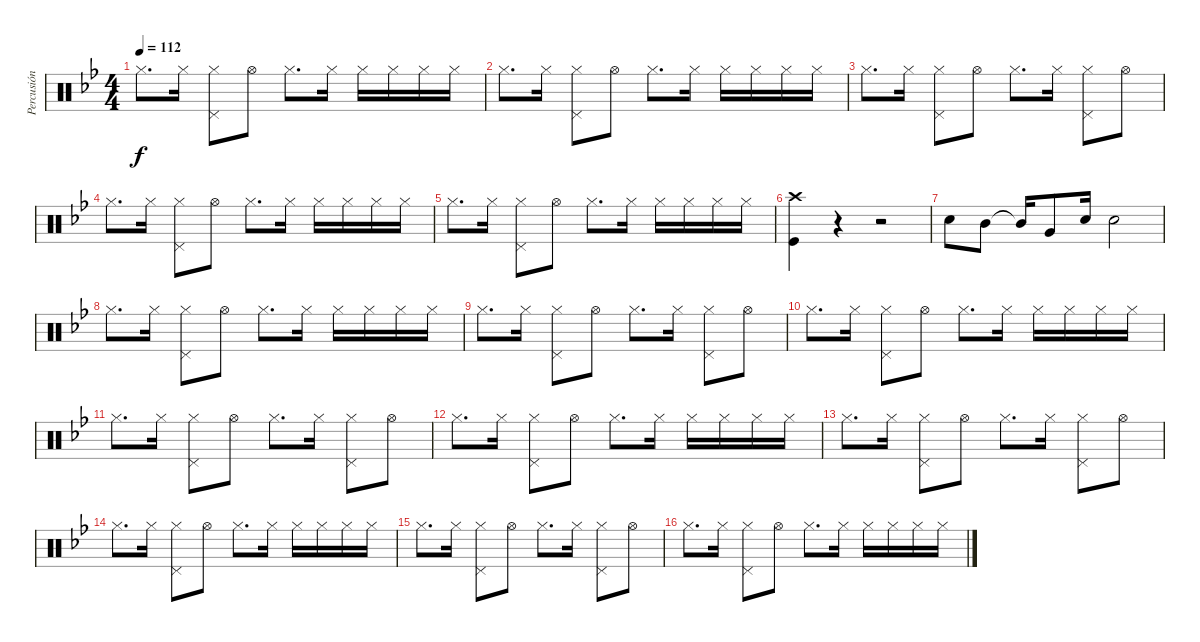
\track ("Percusión" "Percusión") {instrument percussion}
\staff {score}
\articulation defaults
\ts (4 4)
\tempo 112
\clef neutral
\ks bb "Hi-Hat (closed)".8{d dy f} "Hi-Hat (closed)".16
("Hi-Hat (closed)" "Pedal Hi-Hat (hit)").8 "Hi-Hat (open)".8 "Hi-Hat (closed)".8{d} "Hi-Hat (closed)".16 "Hi-Hat (closed)".16 "Hi-Hat (closed)".16 "Hi-Hat (closed)".16 "Hi-Hat (closed)".16 |
"Hi-Hat (closed)".8{d} "Hi-Hat (closed)".16 ("Hi-Hat (closed)" "Pedal Hi-Hat (hit)").8 "Hi-Hat (open)".8 "Hi-Hat (closed)".8{d} "Hi-Hat (closed)".16 "Hi-Hat (closed)".16 "Hi-Hat (closed)".16 "Hi-Hat (closed)".16 "Hi-Hat (closed)".16 |
"Hi-Hat (closed)".8{d} "Hi-Hat (closed)".16 ("Hi-Hat (closed)" "Pedal Hi-Hat (hit)").8 "Hi-Hat (open)".8 "Hi-Hat (closed)".8{d} "Hi-Hat (closed)".16 ("Hi-Hat (closed)" "Pedal Hi-Hat (hit)").8 "Hi-Hat (open)".8 |
"Hi-Hat (closed)".8{d} "Hi-Hat (closed)".16 ("Hi-Hat (closed)" "Pedal Hi-Hat (hit)").8 "Hi-Hat (open)".8 "Hi-Hat (closed)".8{d} "Hi-Hat (closed)".16 "Hi-Hat (closed)".16 "Hi-Hat (closed)".16 "Hi-Hat (closed)".16 "Hi-Hat (closed)".16 |
"Hi-Hat (closed)".8{d} "Hi-Hat (closed)".16 ("Hi-Hat (closed)" "Pedal Hi-Hat (hit)").8 "Hi-Hat (open)".8 "Hi-Hat (closed)".8{d} "Hi-Hat (closed)".16 "Hi-Hat (closed)".16 "Hi-Hat (closed)".16 "Hi-Hat (closed)".16 "Hi-Hat (closed)".16 |
("Crash high (hit)" "Kick (hit)").4 r.4 r.2 |
"Snare (hit) 2".8 "Mid Tom (hit)".8 "Mid Tom (hit)"{t}.16 "Very Low Tom (hit)".8 "Snare (hit) 2".16 "Snare (hit) 2".2 |
"Hi-Hat (closed)".8{d} "Hi-Hat (closed)".16 ("Hi-Hat (closed)" "Pedal Hi-Hat (hit)").8 "Hi-Hat (open)".8 "Hi-Hat (closed)".8{d} "Hi-Hat (closed)".16 "Hi-Hat (closed)".16 "Hi-Hat (closed)".16 "Hi-Hat (closed)".16 "Hi-Hat (closed)".16 |
"Hi-Hat (closed)".8{d} "Hi-Hat (closed)".16 ("Hi-Hat (closed)" "Pedal Hi-Hat (hit)").8 "Hi-Hat (open)".8 "Hi-Hat (closed)".8{d} "Hi-Hat (closed)".16 ("Hi-Hat (closed)" "Pedal Hi-Hat (hit)").8 "Hi-Hat (open)".8 |
"Hi-Hat (closed)".8{d} "Hi-Hat (closed)".16 ("Hi-Hat (closed)" "Pedal Hi-Hat (hit)").8 "Hi-Hat (open)".8 "Hi-Hat (closed)".8{d} "Hi-Hat (closed)".16 "Hi-Hat (closed)".16 "Hi-Hat (closed)".16 "Hi-Hat (closed)".16 "Hi-Hat (closed)".16 |
"Hi-Hat (closed)".8{d} "Hi-Hat (closed)".16 ("Hi-Hat (closed)" "Pedal Hi-Hat (hit)").8 "Hi-Hat (open)".8 "Hi-Hat (closed)".8{d} "Hi-Hat (closed)".16 ("Hi-Hat (closed)" "Pedal Hi-Hat (hit)").8 "Hi-Hat (open)".8 |
"Hi-Hat (closed)".8{d} "Hi-Hat (closed)".16 ("Hi-Hat (closed)" "Pedal Hi-Hat (hit)").8 "Hi-Hat (open)".8 "Hi-Hat (closed)".8{d} "Hi-Hat (closed)".16 "Hi-Hat (closed)".16 "Hi-Hat (closed)".16 "Hi-Hat (closed)".16 "Hi-Hat (closed)".16 |
"Hi-Hat (closed)".8{d} "Hi-Hat (closed)".16 ("Hi-Hat (closed)" "Pedal Hi-Hat (hit)").8 "Hi-Hat (open)".8 "Hi-Hat (closed)".8{d} "Hi-Hat (closed)".16 ("Hi-Hat (closed)" "Pedal Hi-Hat (hit)").8 "Hi-Hat (open)".8 |
"Hi-Hat (closed)".8{d} "Hi-Hat (closed)".16 ("Hi-Hat (closed)" "Pedal Hi-Hat (hit)").8 "Hi-Hat (open)".8 "Hi-Hat (closed)".8{d} "Hi-Hat (closed)".16 "Hi-Hat (closed)".16 "Hi-Hat (closed)".16 "Hi-Hat (closed)".16 "Hi-Hat (closed)".16 |
"Hi-Hat (closed)".8{d} "Hi-Hat (closed)".16 ("Hi-Hat (closed)" "Pedal Hi-Hat (hit)").8 "Hi-Hat (open)".8 "Hi-Hat (closed)".8{d} "Hi-Hat (closed)".16 ("Hi-Hat (closed)" "Pedal Hi-Hat (hit)").8 "Hi-Hat (open)".8 |
"Hi-Hat (closed)".8{d} "Hi-Hat (closed)".16 ("Hi-Hat (closed)" "Pedal Hi-Hat (hit)").8 "Hi-Hat (open)".8 "Hi-Hat (closed)".8{d} "Hi-Hat (closed)".16 "Hi-Hat (closed)".16 "Hi-Hat (closed)".16 "Hi-Hat (closed)".16 "Hi-Hat (closed)".16
